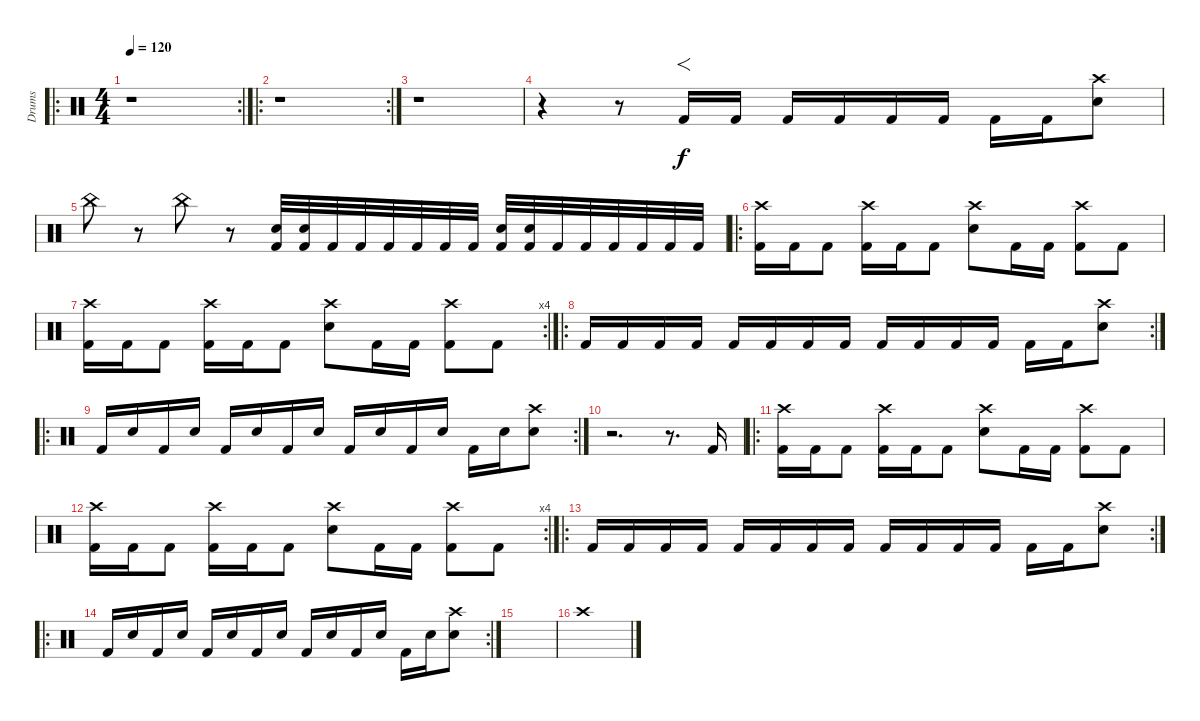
\track ("Drums" "Drums") {instrument percussion}
\staff
\articulation defaults
\ro
\rc 2
\ts (4 4)
\tempo 120
\clef neutral
\ks c
r.1{dy f} |
\ro
\rc 2
r.1 |
r.1 |
r.4 r.8 "Kick (hit) 2".16{f} "Kick (hit) 2".16 "Kick (hit) 2".16 "Kick (hit) 2".16 "Kick (hit) 2".16 "Kick (hit) 2".16 "Kick (hit) 2".16 "Kick (hit) 2".16 ("Crash high (hit)" "Electric Snare (hit)").8 |
"China (hit)".8 r.8 "China (hit)".8 r.8 ("Electric Snare (hit)" "Kick (hit) 2").32 ("Electric Snare (hit)" "Kick (hit) 2").32 "Kick (hit) 2".32 "Kick (hit) 2".32 "Kick (hit) 2".32 "Kick (hit) 2".32 "Kick (hit) 2".32 "Kick (hit) 2".32 ("Electric Snare (hit)" "Kick (hit) 2").32 ("Electric Snare (hit)" "Kick (hit) 2").32 "Kick (hit) 2".32 "Kick (hit) 2".32 "Kick (hit) 2".32 "Kick (hit) 2".32 "Kick (hit) 2".32 "Kick (hit) 2".32 |
\ro
("Crash high (hit)" "Kick (hit) 2").16 "Kick (hit) 2".16 "Kick (hit) 2".8 ("Crash high (hit)" "Kick (hit) 2").16 "Kick (hit) 2".16 "Kick (hit) 2".8 ("Crash high (hit)" "Electric Snare (hit)").8 "Kick (hit) 2".16 "Kick (hit) 2".16 ("Crash high (hit)" "Kick (hit) 2").8 "Kick (hit) 2".8 |
\rc 4
("Crash high (hit)" "Kick (hit) 2").16 "Kick (hit) 2".16 "Kick (hit) 2".8 ("Crash high (hit)" "Kick (hit) 2").16 "Kick (hit) 2".16 "Kick (hit) 2".8 ("Crash high (hit)" "Electric Snare (hit)").8 "Kick (hit) 2".16 "Kick (hit) 2".16 ("Crash high (hit)" "Kick (hit) 2").8 "Kick (hit) 2".8 |
\ro
\rc 2 "Kick (hit) 2".16 "Kick (hit) 2".16 "Kick (hit) 2".16 "Kick (hit) 2".16 "Kick (hit) 2".16 "Kick (hit) 2".16 "Kick (hit) 2".16 "Kick (hit) 2".16 "Kick (hit) 2".16 "Kick (hit) 2".16 "Kick (hit) 2".16 "Kick (hit) 2".16 "Kick (hit) 2".16 "Kick (hit) 2".16
("Crash high (hit)" "Electric Snare (hit)").8 |
\ro
\rc 2 "Kick (hit) 2".16 "Snare (hit) 2".16 "Kick (hit) 2".16 "Snare (hit) 2".16 "Kick (hit) 2".16 "Snare (hit) 2".16 "Kick (hit) 2".16 "Snare (hit) 2".16 "Kick (hit) 2".16 "Snare (hit) 2".16 "Kick (hit) 2".16 "Snare (hit) 2".16 "Kick (hit) 2".16 "Snare (hit) 2".16
("Crash high (hit)" "Electric Snare (hit)").8 |
r.2{d} r.8{d} "Kick (hit) 2".16 |
\ro
("Crash high (hit)" "Kick (hit) 2").16 "Kick (hit) 2".16 "Kick (hit) 2".8 ("Crash high (hit)" "Kick (hit) 2").16 "Kick (hit) 2".16 "Kick (hit) 2".8 ("Crash high (hit)" "Electric Snare (hit)").8 "Kick (hit) 2".16 "Kick (hit) 2".16 ("Crash high (hit)" "Kick (hit) 2").8 "Kick (hit) 2".8 |
\rc 4
("Crash high (hit)" "Kick (hit) 2").16 "Kick (hit) 2".16 "Kick (hit) 2".8 ("Crash high (hit)" "Kick (hit) 2").16 "Kick (hit) 2".16 "Kick (hit) 2".8 ("Crash high (hit)" "Electric Snare (hit)").8 "Kick (hit) 2".16 "Kick (hit) 2".16 ("Crash high (hit)" "Kick (hit) 2").8 "Kick (hit) 2".8 |
\ro
\rc 2 "Kick (hit) 2".16 "Kick (hit) 2".16 "Kick (hit) 2".16 "Kick (hit) 2".16 "Kick (hit) 2".16 "Kick (hit) 2".16 "Kick (hit) 2".16 "Kick (hit) 2".16 "Kick (hit) 2".16 "Kick (hit) 2".16 "Kick (hit) 2".16 "Kick (hit) 2".16 "Kick (hit) 2".16 "Kick (hit) 2".16
("Crash high (hit)" "Electric Snare (hit)").8 |
\ro
\rc 2 "Kick (hit) 2".16 "Snare (hit) 2".16 "Kick (hit) 2".16 "Snare (hit) 2".16 "Kick (hit) 2".16 "Snare (hit) 2".16 "Kick (hit) 2".16 "Snare (hit) 2".16 "Kick (hit) 2".16 "Snare (hit) 2".16 "Kick (hit) 2".16 "Snare (hit) 2".16 "Kick (hit) 2".16 "Snare (hit) 2".16
("Crash high (hit)" "Electric Snare (hit)").8 |
|
"Crash high (hit)".1
